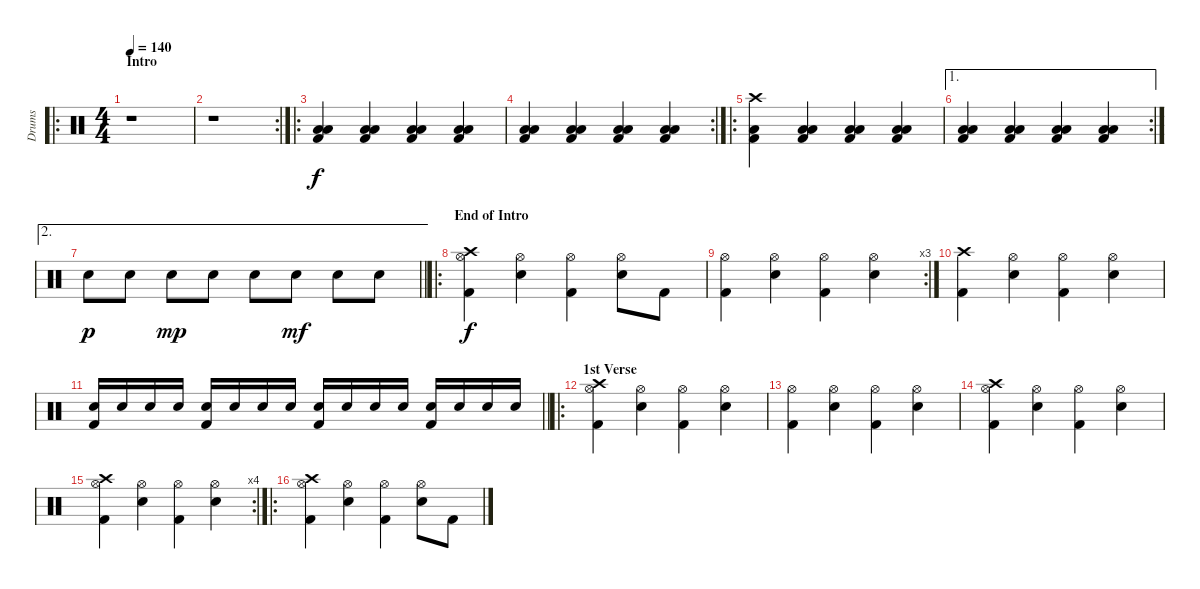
\track ("Drums" "Drums") {instrument percussion}
\staff {score}
\articulation defaults
\ro
\ts (4 4)
\section ("" "Intro")
\tempo 140
\clef neutral
\ks c
r.1{dy f} |
\rc 2
r.1 |
\ro
("Low Tom (hit)" "Low Floor Tom (hit)" "Kick (hit) 2").4 ("Low Tom (hit)" "Low Floor Tom (hit)" "Kick (hit) 2").4 ("Low Tom (hit)" "Low Floor Tom (hit)" "Kick (hit) 2").4 ("Low Tom (hit)" "Low Floor Tom (hit)" "Kick (hit) 2").4 |
\rc 2
("Low Tom (hit)" "Low Floor Tom (hit)" "Kick (hit) 2").4 ("Low Tom (hit)" "Low Floor Tom (hit)" "Kick (hit) 2").4 ("Low Tom (hit)" "Low Floor Tom (hit)" "Kick (hit) 2").4 ("Low Tom (hit)" "Low Floor Tom (hit)" "Kick (hit) 2").4 |
\ro
("Crash high (hit)" "Low Tom (hit)" "Kick (hit) 2").4 ("Low Tom (hit)" "Low Floor Tom (hit)" "Kick (hit) 2").4 ("Low Tom (hit)" "Low Floor Tom (hit)" "Kick (hit) 2").4 ("Low Tom (hit)" "Low Floor Tom (hit)" "Kick (hit) 2").4 |
\ae 1
\rc 2
("Low Tom (hit)" "Low Floor Tom (hit)" "Kick (hit) 2").4 ("Low Tom (hit)" "Low Floor Tom (hit)" "Kick (hit) 2").4 ("Low Tom (hit)" "Low Floor Tom (hit)" "Kick (hit) 2").4 ("Low Tom (hit)" "Low Floor Tom (hit)" "Kick (hit) 2").4 |
\ae 2
\barLineRight lightlight "Electric Snare (hit)".8{dy p} "Electric Snare (hit)".8 "Electric Snare (hit)".8{dy mp} "Electric Snare (hit)".8 "Electric Snare (hit)".8 "Electric Snare (hit)".8{dy mf} "Electric Snare (hit)".8 "Electric Snare (hit)".8
|
\ro
\section ("" "End of Intro")
("Crash high (hit)" "Hi-Hat (open)" "Kick (hit) 2").4{dy f} ("Hi-Hat (open)" "Electric Snare (hit)").4 ("Hi-Hat (open)" "Kick (hit) 2").4 ("Hi-Hat (open)" "Electric Snare (hit)").8 "Kick (hit) 2".8 |
\rc 3
("Hi-Hat (open)" "Kick (hit) 2").4 ("Hi-Hat (open)" "Electric Snare (hit)").4 ("Hi-Hat (open)" "Kick (hit) 2").4 ("Hi-Hat (open)" "Electric Snare (hit)").4 |
("Crash high (hit)" "Kick (hit) 2").4 ("Hi-Hat (open)" "Electric Snare (hit)").4 ("Hi-Hat (open)" "Kick (hit) 2").4 ("Hi-Hat (open)" "Electric Snare (hit)").4 |
\barLineRight lightlight
("Electric Snare (hit)" "Kick (hit) 2").16 "Electric Snare (hit)".16 "Electric Snare (hit)".16 "Electric Snare (hit)".16 ("Electric Snare (hit)" "Kick (hit) 2").16 "Electric Snare (hit)".16 "Electric Snare (hit)".16 "Electric Snare (hit)".16 ("Electric Snare (hit)" "Kick (hit) 2").16 "Electric Snare (hit)".16 "Electric Snare (hit)".16 "Electric Snare (hit)".16 ("Electric Snare (hit)" "Kick (hit) 2").16 "Electric Snare (hit)".16 "Electric Snare (hit)".16 "Electric Snare (hit)".16 |
\ro
\section ("" "1st Verse")
("Crash high (hit)" "Hi-Hat (open)" "Kick (hit) 2").4 ("Hi-Hat (open)" "Electric Snare (hit)").4 ("Hi-Hat (open)" "Kick (hit) 2").4 ("Hi-Hat (open)" "Electric Snare (hit)").4 |
("Hi-Hat (open)" "Kick (hit) 2").4 ("Hi-Hat (open)" "Electric Snare (hit)").4 ("Hi-Hat (open)" "Kick (hit) 2").4 ("Hi-Hat (open)" "Electric Snare (hit)").4 |
("Crash high (hit)" "Hi-Hat (open)" "Kick (hit) 2").4 ("Hi-Hat (open)" "Electric Snare (hit)").4 ("Hi-Hat (open)" "Kick (hit) 2").4 ("Hi-Hat (open)" "Electric Snare (hit)").4 |
\rc 4
("Crash high (hit)" "Hi-Hat (open)" "Kick (hit) 2").4 ("Hi-Hat (open)" "Electric Snare (hit)").4 ("Hi-Hat (open)" "Kick (hit) 2").4 ("Hi-Hat (open)" "Electric Snare (hit)").4 |
\ro
("Crash high (hit)" "Hi-Hat (open)" "Kick (hit) 2").4 ("Hi-Hat (open)" "Electric Snare (hit)").4 ("Hi-Hat (open)" "Kick (hit) 2").4 ("Hi-Hat (open)" "Electric Snare (hit)").8 "Kick (hit) 2".8
